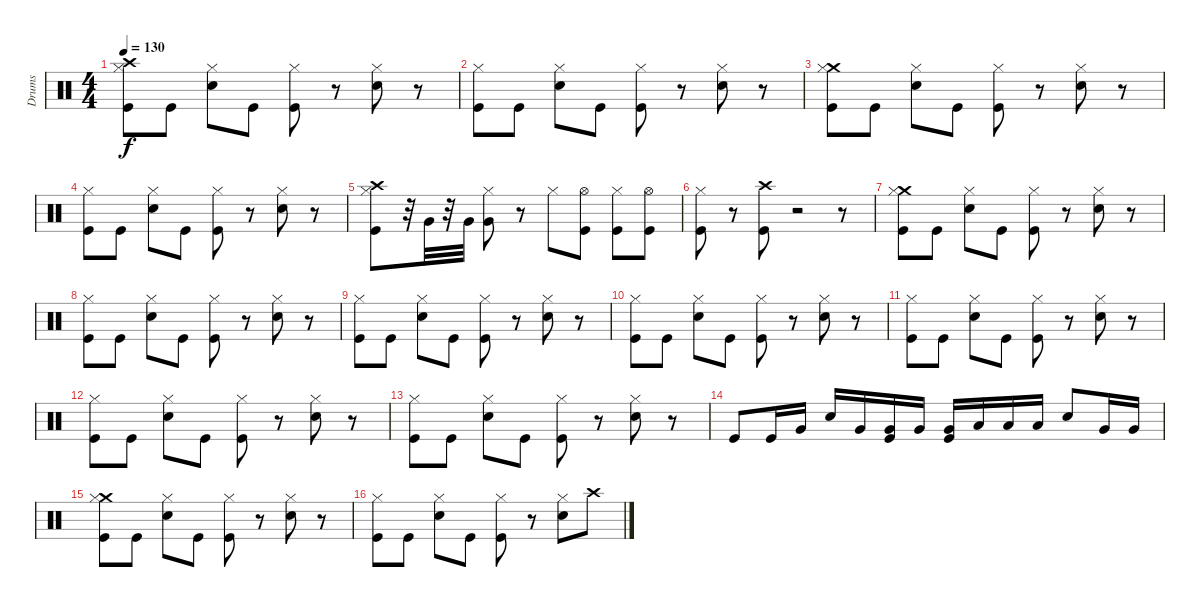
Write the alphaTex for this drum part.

\track ("Drums" "Drums") {instrument percussion}
\staff {score}
\articulation defaults
\ts (4 4)
\tempo 130
\clef neutral
\ks c
("Crash high (hit)" "Hi-Hat (closed)" "Kick (hit)").8{dy f} "Kick (hit)".8 ("Hi-Hat (closed)" "Snare (hit) 2").8 "Kick (hit)".8 ("Hi-Hat (closed)" "Kick (hit)").8 r.8 ("Hi-Hat (closed)" "Snare (hit) 2").8 r.8 |
("Hi-Hat (closed)" "Kick (hit)").8 "Kick (hit)".8 ("Hi-Hat (closed)" "Snare (hit) 2").8 "Kick (hit)".8 ("Hi-Hat (closed)" "Kick (hit)").8 r.8 ("Hi-Hat (closed)" "Snare (hit) 2").8 r.8 |
("Crash medium (hit)" "Hi-Hat (closed)" "Kick (hit)").8 "Kick (hit)".8 ("Hi-Hat (closed)" "Snare (hit) 2").8 "Kick (hit)".8 ("Hi-Hat (closed)" "Kick (hit)").8 r.8 ("Hi-Hat (closed)" "Snare (hit) 2").8 r.8 |
("Hi-Hat (closed)" "Kick (hit)").8 "Kick (hit)".8 ("Hi-Hat (closed)" "Snare (hit) 2").8 "Kick (hit)".8 ("Hi-Hat (closed)" "Kick (hit)").8 r.8 ("Hi-Hat (closed)" "Snare (hit) 2").8 r.8 |
("Crash high (hit)" "Hi-Hat (closed)" "Kick (hit)").8 r.32 "Very Low Tom (hit)".32 r.32 "Very Low Tom (hit)".32 ("Very Low Tom (hit)" "Hi-Hat (closed)").8 r.8 "Hi-Hat (closed)".8 ("Kick (hit)" "Hi-Hat (open)").8 ("Hi-Hat (closed)" "Kick (hit)").8 ("Hi-Hat (open)" "Kick (hit)").8 |
("Kick (hit)" "Hi-Hat (closed)").8 r.8 ("Kick (hit)" "Crash high (hit)").8 r.2 r.8 |
("Crash medium (hit)" "Hi-Hat (closed)" "Kick (hit)").8 "Kick (hit)".8 ("Hi-Hat (closed)" "Snare (hit) 2").8 "Kick (hit)".8 ("Hi-Hat (closed)" "Kick (hit)").8 r.8 ("Hi-Hat (closed)" "Snare (hit) 2").8 r.8 |
("Hi-Hat (closed)" "Kick (hit)").8 "Kick (hit)".8 ("Hi-Hat (closed)" "Snare (hit) 2").8 "Kick (hit)".8 ("Hi-Hat (closed)" "Kick (hit)").8 r.8 ("Hi-Hat (closed)" "Snare (hit) 2").8 r.8 |
("Hi-Hat (closed)" "Kick (hit)").8 "Kick (hit)".8 ("Hi-Hat (closed)" "Snare (hit) 2").8 "Kick (hit)".8 ("Hi-Hat (closed)" "Kick (hit)").8 r.8 ("Hi-Hat (closed)" "Snare (hit) 2").8 r.8 |
("Hi-Hat (closed)" "Kick (hit)").8 "Kick (hit)".8 ("Hi-Hat (closed)" "Snare (hit) 2").8 "Kick (hit)".8 ("Hi-Hat (closed)" "Kick (hit)").8 r.8 ("Hi-Hat (closed)" "Snare (hit) 2").8 r.8 |
("Hi-Hat (closed)" "Kick (hit)").8 "Kick (hit)".8 ("Hi-Hat (closed)" "Snare (hit) 2").8 "Kick (hit)".8 ("Hi-Hat (closed)" "Kick (hit)").8 r.8 ("Hi-Hat (closed)" "Snare (hit) 2").8 r.8 |
("Hi-Hat (closed)" "Kick (hit)").8 "Kick (hit)".8 ("Hi-Hat (closed)" "Snare (hit) 2").8 "Kick (hit)".8 ("Hi-Hat (closed)" "Kick (hit)").8 r.8 ("Hi-Hat (closed)" "Snare (hit) 2").8 r.8 |
("Hi-Hat (closed)" "Kick (hit)").8 "Kick (hit)".8 ("Hi-Hat (closed)" "Snare (hit) 2").8 "Kick (hit)".8 ("Hi-Hat (closed)" "Kick (hit)").8 r.8 ("Hi-Hat (closed)" "Snare (hit) 2").8 r.8 |
"Kick (hit)".8 "Kick (hit)".16 "Very Low Tom (hit)".16 "Snare (hit) 2".16 "Very Low Tom (hit)".16 ("Very Low Tom (hit)" "Kick (hit)").16 "Very Low Tom (hit)".16 ("Very Low Tom (hit)" "Kick (hit)").16 "Low Floor Tom (hit)".16 "Low Floor Tom (hit)".16 "Low Floor Tom (hit)".16 "Snare (hit) 2".8 "Very Low Tom (hit)".16 "Very Low Tom (hit)".16 |
("Crash medium (hit)" "Hi-Hat (closed)" "Kick (hit)").8 "Kick (hit)".8 ("Hi-Hat (closed)" "Snare (hit) 2").8 "Kick (hit)".8 ("Hi-Hat (closed)" "Kick (hit)").8 r.8 ("Hi-Hat (closed)" "Snare (hit) 2").8 r.8 |
("Hi-Hat (closed)" "Kick (hit)").8 "Kick (hit)".8 ("Hi-Hat (closed)" "Snare (hit) 2").8 "Kick (hit)".8 ("Hi-Hat (closed)" "Kick (hit)").8 r.8 ("Hi-Hat (closed)" "Snare (hit) 2").8 "Crash high (hit)".8
